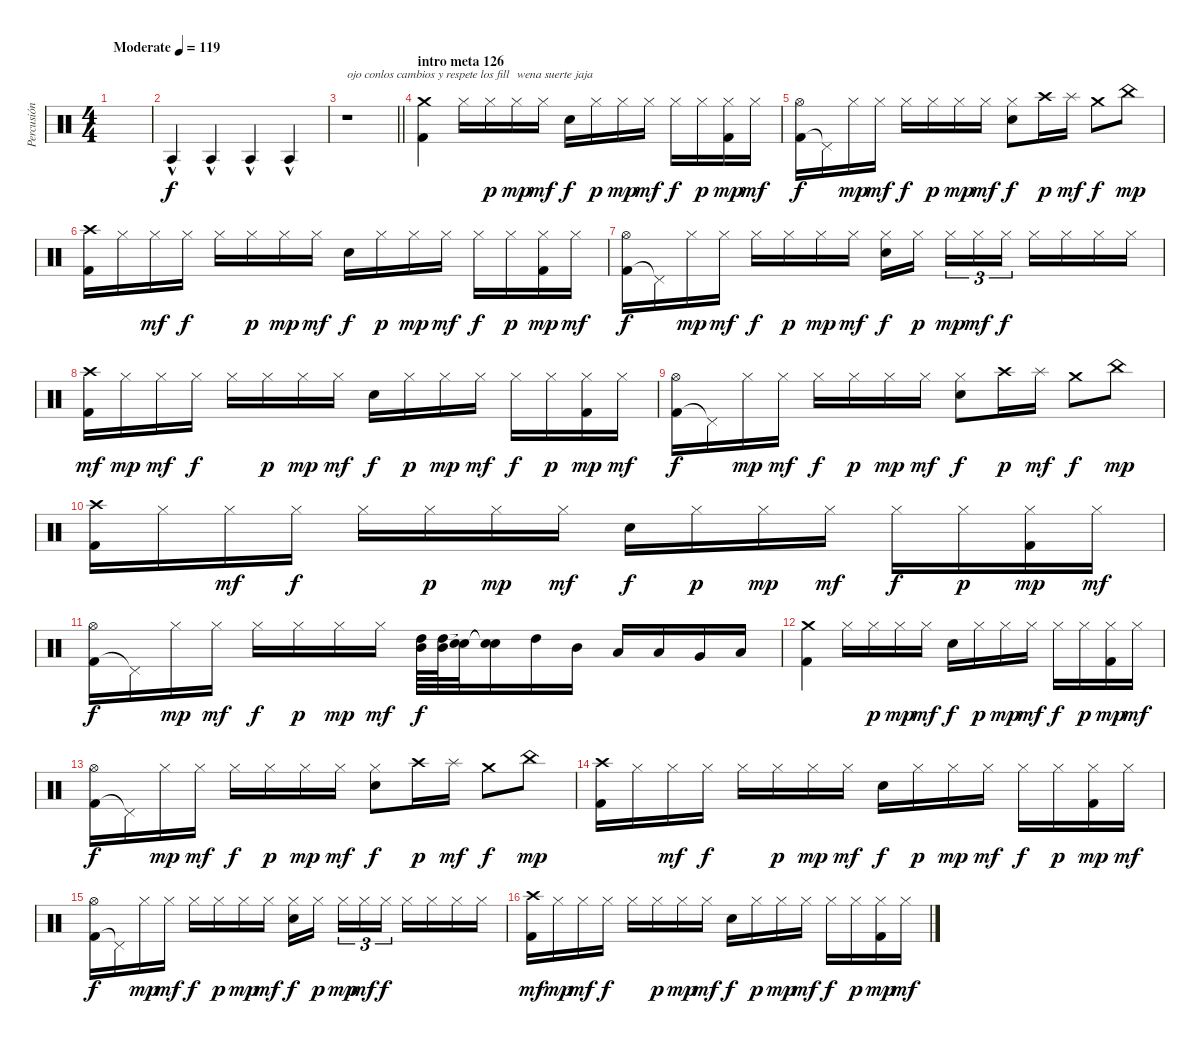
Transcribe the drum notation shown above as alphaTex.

\track ("Percusión" "Percusión") {mute instrument percussion}
\staff {score}
\articulation defaults
\ts (4 4)
\tempo (119 "Moderate")
\clef neutral
\ks c
|
"Agogo tow (hit)"{hac}.4 "Agogo tow (hit)"{hac}.4 "Agogo tow (hit)"{hac}.4 "Agogo tow (hit)"{hac}.4 |
\barLineRight lightlight
r.1{txt "ojo conlos cambios y respete los fill"} |
\section ("" "intro meta 126")
("Kick (hit) 2" "Crash medium (hit)").4{dy f} "Hi-Hat (closed)".16 "Hi-Hat (closed)".16{dy p} "Hi-Hat (closed)".16{txt "wena suerte jaja" dy mp} "Hi-Hat (closed)".16{dy mf} "Snare (hit) 2".16{dy f} "Hi-Hat (closed)".16{dy p} "Hi-Hat (closed)".16{dy mp} "Hi-Hat (closed)".16{dy mf} "Hi-Hat (closed)".16{dy f} "Hi-Hat (closed)".16{dy p} ("Kick (hit) 2" "Hi-Hat (closed)").16{dy mp} "Hi-Hat (closed)".16{dy mf} |
("Kick (hit) 2" "Hi-Hat (open)").16{dy f} "Pedal Hi-Hat (hit)"{t}.16 "Hi-Hat (closed)".16{dy mp} "Hi-Hat (closed)".16{dy mf} "Hi-Hat (closed)".16{dy f} "Hi-Hat (closed)".16{dy p} "Hi-Hat (closed)".16{dy mp} "Hi-Hat (closed)".16{dy mf} ("Hi-Hat (closed)" "Snare (hit) 2").8{dy f} "Crash high (hit)".16{dy p} "Splash (hit)".16{dy mf} "Crash medium (hit)".8{dy f} "China (hit)".8{dy mp} |
("Kick (hit) 2" "Crash high (hit)").16 "Hi-Hat (closed)".16 "Hi-Hat (closed)".16{dy mf} "Hi-Hat (closed)".16{dy f} "Hi-Hat (closed)".16 "Hi-Hat (closed)".16{dy p} "Hi-Hat (closed)".16{dy mp} "Hi-Hat (closed)".16{dy mf} "Snare (hit) 2".16{dy f} "Hi-Hat (closed)".16{dy p} "Hi-Hat (closed)".16{dy mp} "Hi-Hat (closed)".16{dy mf} "Hi-Hat (closed)".16{dy f} "Hi-Hat (closed)".16{dy p} ("Kick (hit) 2" "Hi-Hat (closed)").16{dy mp} "Hi-Hat (closed)".16{dy mf} |
("Kick (hit) 2" "Hi-Hat (open)").16{dy f} "Pedal Hi-Hat (hit)"{t}.16 "Hi-Hat (closed)".16{dy mp} "Hi-Hat (closed)".16{dy mf} "Hi-Hat (closed)".16{dy f} "Hi-Hat (closed)".16{dy p} "Hi-Hat (closed)".16{dy mp} "Hi-Hat (closed)".16{dy mf} ("Hi-Hat (closed)" "Snare (hit) 2").16{dy f} "Hi-Hat (closed)".16{dy p beam splitsecondary} "Hi-Hat (closed)".16{tu (3 2) dy mp} "Hi-Hat (closed)".16{tu (3 2) dy mf} "Hi-Hat (closed)".16{tu (3 2) dy f} "Hi-Hat (closed)".16 "Hi-Hat (closed)".16 "Hi-Hat (closed)".16 "Hi-Hat (closed)".16 |
("Kick (hit) 2" "Crash high (hit)").16{dy mf} "Hi-Hat (closed)".16{dy mp} "Hi-Hat (closed)".16{dy mf} "Hi-Hat (closed)".16{dy f} "Hi-Hat (closed)".16 "Hi-Hat (closed)".16{dy p} "Hi-Hat (closed)".16{dy mp} "Hi-Hat (closed)".16{dy mf} "Snare (hit) 2".16{dy f} "Hi-Hat (closed)".16{dy p} "Hi-Hat (closed)".16{dy mp} "Hi-Hat (closed)".16{dy mf} "Hi-Hat (closed)".16{dy f} "Hi-Hat (closed)".16{dy p} ("Kick (hit) 2" "Hi-Hat (closed)").16{dy mp} "Hi-Hat (closed)".16{dy mf} |
("Kick (hit) 2" "Hi-Hat (open)").16{dy f} "Pedal Hi-Hat (hit)"{t}.16 "Hi-Hat (closed)".16{dy mp} "Hi-Hat (closed)".16{dy mf} "Hi-Hat (closed)".16{dy f} "Hi-Hat (closed)".16{dy p} "Hi-Hat (closed)".16{dy mp} "Hi-Hat (closed)".16{dy mf} ("Hi-Hat (closed)" "Snare (hit) 2").8{dy f} "Crash high (hit)".16{dy p} "Splash (hit)".16{dy mf} "Crash medium (hit)".8{dy f} "China (hit)".8{dy mp} |
("Kick (hit) 2" "Crash high (hit)").16 "Hi-Hat (closed)".16 "Hi-Hat (closed)".16{dy mf} "Hi-Hat (closed)".16{dy f} "Hi-Hat (closed)".16 "Hi-Hat (closed)".16{dy p} "Hi-Hat (closed)".16{dy mp} "Hi-Hat (closed)".16{dy mf} "Snare (hit) 2".16{dy f} "Hi-Hat (closed)".16{dy p} "Hi-Hat (closed)".16{dy mp} "Hi-Hat (closed)".16{dy mf} "Hi-Hat (closed)".16{dy f} "Hi-Hat (closed)".16{dy p} ("Kick (hit) 2" "Hi-Hat (closed)").16{dy mp} "Hi-Hat (closed)".16{dy mf} |
("Kick (hit) 2" "Hi-Hat (open)").16{dy f} "Pedal Hi-Hat (hit)"{t}.16 "Hi-Hat (closed)".16{dy mp} "Hi-Hat (closed)".16{dy mf} "Hi-Hat (closed)".16{dy f} "Hi-Hat (closed)".16{dy p} "Hi-Hat (closed)".16{dy mp} "Hi-Hat (closed)".16{dy mf} ("High Tom (hit)" "Mid Tom (hit)").64{dy f} ("High Tom (hit)" "Mid Tom (hit)").64 ("Snare (hit)"{t} "Snare (hit)"{t}).32 ("Snare (hit)"{t} "Snare (hit)"{t}).16 "High Tom (hit)".16 "Mid Tom (hit)".16 "Low Tom (hit)".16 "Low Tom (hit)".16 "Very Low Tom (hit)".16 "Low Floor Tom (hit)".16 |
("Kick (hit) 2" "Crash medium (hit)").4 "Hi-Hat (closed)".16 "Hi-Hat (closed)".16{dy p} "Hi-Hat (closed)".16{dy mp} "Hi-Hat (closed)".16{dy mf} "Snare (hit) 2".16{dy f} "Hi-Hat (closed)".16{dy p} "Hi-Hat (closed)".16{dy mp} "Hi-Hat (closed)".16{dy mf} "Hi-Hat (closed)".16{dy f} "Hi-Hat (closed)".16{dy p} ("Kick (hit) 2" "Hi-Hat (closed)").16{dy mp} "Hi-Hat (closed)".16{dy mf} |
("Kick (hit) 2" "Hi-Hat (open)").16{dy f} "Pedal Hi-Hat (hit)"{t}.16 "Hi-Hat (closed)".16{dy mp} "Hi-Hat (closed)".16{dy mf} "Hi-Hat (closed)".16{dy f} "Hi-Hat (closed)".16{dy p} "Hi-Hat (closed)".16{dy mp} "Hi-Hat (closed)".16{dy mf} ("Hi-Hat (closed)" "Snare (hit) 2").8{dy f} "Crash high (hit)".16{dy p} "Splash (hit)".16{dy mf} "Crash medium (hit)".8{dy f} "China (hit)".8{dy mp} |
("Kick (hit) 2" "Crash high (hit)").16 "Hi-Hat (closed)".16 "Hi-Hat (closed)".16{dy mf} "Hi-Hat (closed)".16{dy f} "Hi-Hat (closed)".16 "Hi-Hat (closed)".16{dy p} "Hi-Hat (closed)".16{dy mp} "Hi-Hat (closed)".16{dy mf} "Snare (hit) 2".16{dy f} "Hi-Hat (closed)".16{dy p} "Hi-Hat (closed)".16{dy mp} "Hi-Hat (closed)".16{dy mf} "Hi-Hat (closed)".16{dy f} "Hi-Hat (closed)".16{dy p} ("Kick (hit) 2" "Hi-Hat (closed)").16{dy mp} "Hi-Hat (closed)".16{dy mf} |
("Kick (hit) 2" "Hi-Hat (open)").16{dy f} "Pedal Hi-Hat (hit)"{t}.16 "Hi-Hat (closed)".16{dy mp} "Hi-Hat (closed)".16{dy mf} "Hi-Hat (closed)".16{dy f} "Hi-Hat (closed)".16{dy p} "Hi-Hat (closed)".16{dy mp} "Hi-Hat (closed)".16{dy mf} ("Hi-Hat (closed)" "Snare (hit) 2").16{dy f} "Hi-Hat (closed)".16{dy p beam splitsecondary} "Hi-Hat (closed)".16{tu (3 2) dy mp} "Hi-Hat (closed)".16{tu (3 2) dy mf} "Hi-Hat (closed)".16{tu (3 2) dy f} "Hi-Hat (closed)".16 "Hi-Hat (closed)".16 "Hi-Hat (closed)".16 "Hi-Hat (closed)".16 |
("Kick (hit) 2" "Crash high (hit)").16{dy mf} "Hi-Hat (closed)".16{dy mp} "Hi-Hat (closed)".16{dy mf} "Hi-Hat (closed)".16{dy f} "Hi-Hat (closed)".16 "Hi-Hat (closed)".16{dy p} "Hi-Hat (closed)".16{dy mp} "Hi-Hat (closed)".16{dy mf} "Snare (hit) 2".16{dy f} "Hi-Hat (closed)".16{dy p} "Hi-Hat (closed)".16{dy mp} "Hi-Hat (closed)".16{dy mf} "Hi-Hat (closed)".16{dy f} "Hi-Hat (closed)".16{dy p} ("Kick (hit) 2" "Hi-Hat (closed)").16{dy mp} "Hi-Hat (closed)".16{dy mf}
